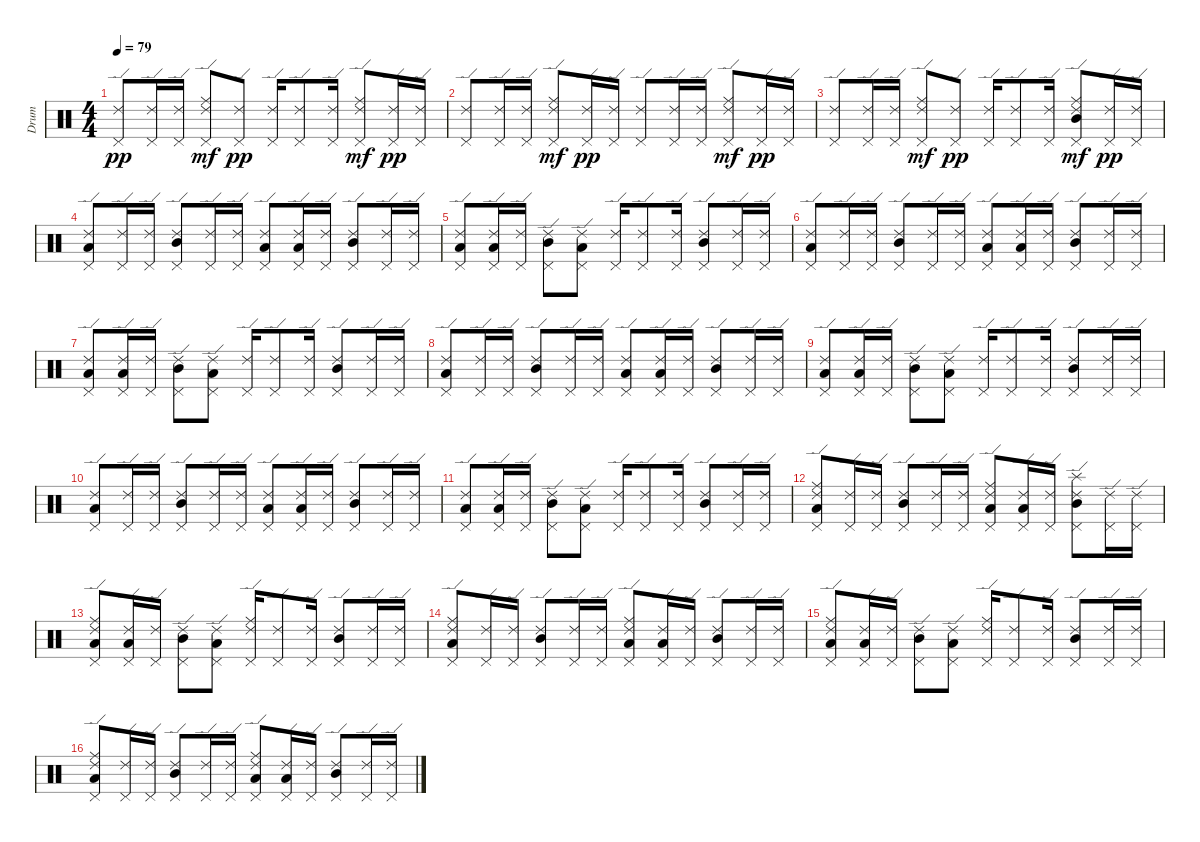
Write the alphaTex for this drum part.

\track ("Drum" "Drum") {instrument percussion}
\staff {score}
\articulation defaults
\ts (4 4)
\tempo 79
\clef neutral
\ks c
("Ride (edge) 2" "Pedal Hi-Hat (hit)").8{dy pp} ("Ride (edge) 2" "Pedal Hi-Hat (hit)").16 ("Ride (edge) 2" "Pedal Hi-Hat (hit)").16 ("Ride (edge) 2" "Pedal Hi-Hat (hit)" "Ride (middle)").8{dy mf} ("Ride (edge) 2" "Pedal Hi-Hat (hit)").8{dy pp} ("Ride (edge) 2" "Pedal Hi-Hat (hit)").16 ("Ride (edge) 2" "Pedal Hi-Hat (hit)").8 ("Ride (edge) 2" "Pedal Hi-Hat (hit)").16 ("Ride (edge) 2" "Pedal Hi-Hat (hit)" "Ride (middle)").8{dy mf} ("Ride (edge) 2" "Pedal Hi-Hat (hit)").16{dy pp} ("Ride (edge) 2" "Pedal Hi-Hat (hit)").16 |
("Ride (edge) 2" "Pedal Hi-Hat (hit)").8 ("Ride (edge) 2" "Pedal Hi-Hat (hit)").16 ("Ride (edge) 2" "Pedal Hi-Hat (hit)").16 ("Ride (edge) 2" "Pedal Hi-Hat (hit)" "Ride (middle)").8{dy mf} ("Ride (edge) 2" "Pedal Hi-Hat (hit)").16{dy pp} ("Ride (edge) 2" "Pedal Hi-Hat (hit)").16 ("Ride (edge) 2" "Pedal Hi-Hat (hit)").8 ("Ride (edge) 2" "Pedal Hi-Hat (hit)").16 ("Ride (edge) 2" "Pedal Hi-Hat (hit)").16 ("Ride (edge) 2" "Pedal Hi-Hat (hit)" "Ride (middle)").8{dy mf} ("Ride (edge) 2" "Pedal Hi-Hat (hit)").16{dy pp} ("Ride (edge) 2" "Pedal Hi-Hat (hit)").16 |
("Ride (edge) 2" "Pedal Hi-Hat (hit)").8 ("Ride (edge) 2" "Pedal Hi-Hat (hit)").16 ("Ride (edge) 2" "Pedal Hi-Hat (hit)").16 ("Ride (edge) 2" "Pedal Hi-Hat (hit)" "Ride (middle)").8{dy mf} ("Ride (edge) 2" "Pedal Hi-Hat (hit)").8{dy pp} ("Ride (edge) 2" "Pedal Hi-Hat (hit)").16 ("Ride (edge) 2" "Pedal Hi-Hat (hit)").8 ("Ride (edge) 2" "Pedal Hi-Hat (hit)").16 ("Ride (edge) 2" "Pedal Hi-Hat (hit)" "Ride (middle)" "Mid Tom (hit)").8{dy mf} ("Ride (edge) 2" "Pedal Hi-Hat (hit)").16{dy pp} ("Ride (edge) 2" "Pedal Hi-Hat (hit)").16 |
("Ride (edge) 2" "Pedal Hi-Hat (hit)" "Low Tom (hit)").8 ("Ride (edge) 2" "Pedal Hi-Hat (hit)").16 ("Ride (edge) 2" "Pedal Hi-Hat (hit)").16 ("Ride (edge) 2" "Pedal Hi-Hat (hit)" "Mid Tom (hit)").8 ("Ride (edge) 2" "Pedal Hi-Hat (hit)").16 ("Ride (edge) 2" "Pedal Hi-Hat (hit)").16 ("Ride (edge) 2" "Pedal Hi-Hat (hit)" "Low Tom (hit)").8 ("Ride (edge) 2" "Pedal Hi-Hat (hit)" "Low Tom (hit)").16 ("Ride (edge) 2" "Pedal Hi-Hat (hit)").16 ("Ride (edge) 2" "Pedal Hi-Hat (hit)" "Mid Tom (hit)").8 ("Ride (edge) 2" "Pedal Hi-Hat (hit)").16 ("Ride (edge) 2" "Pedal Hi-Hat (hit)").16 |
("Ride (edge) 2" "Pedal Hi-Hat (hit)" "Low Tom (hit)").8 ("Ride (edge) 2" "Pedal Hi-Hat (hit)" "Low Tom (hit)").16 ("Ride (edge) 2" "Pedal Hi-Hat (hit)").16 ("Ride (edge) 2" "Pedal Hi-Hat (hit)" "Mid Tom (hit)").8 ("Ride (edge) 2" "Pedal Hi-Hat (hit)" "Low Tom (hit)").8 ("Ride (edge) 2" "Pedal Hi-Hat (hit)").16 ("Ride (edge) 2" "Pedal Hi-Hat (hit)").8 ("Ride (edge) 2" "Pedal Hi-Hat (hit)").16 ("Ride (edge) 2" "Pedal Hi-Hat (hit)" "Mid Tom (hit)").8 ("Ride (edge) 2" "Pedal Hi-Hat (hit)").16 ("Ride (edge) 2" "Pedal Hi-Hat (hit)").16 |
("Ride (edge) 2" "Pedal Hi-Hat (hit)" "Low Tom (hit)").8 ("Ride (edge) 2" "Pedal Hi-Hat (hit)").16 ("Ride (edge) 2" "Pedal Hi-Hat (hit)").16 ("Ride (edge) 2" "Pedal Hi-Hat (hit)" "Mid Tom (hit)").8 ("Ride (edge) 2" "Pedal Hi-Hat (hit)").16 ("Ride (edge) 2" "Pedal Hi-Hat (hit)").16 ("Ride (edge) 2" "Pedal Hi-Hat (hit)" "Low Tom (hit)").8 ("Ride (edge) 2" "Pedal Hi-Hat (hit)" "Low Tom (hit)").16 ("Ride (edge) 2" "Pedal Hi-Hat (hit)").16 ("Ride (edge) 2" "Pedal Hi-Hat (hit)" "Mid Tom (hit)").8 ("Ride (edge) 2" "Pedal Hi-Hat (hit)").16 ("Ride (edge) 2" "Pedal Hi-Hat (hit)").16 |
("Ride (edge) 2" "Pedal Hi-Hat (hit)" "Low Tom (hit)").8 ("Ride (edge) 2" "Pedal Hi-Hat (hit)" "Low Tom (hit)").16 ("Ride (edge) 2" "Pedal Hi-Hat (hit)").16 ("Ride (edge) 2" "Pedal Hi-Hat (hit)" "Mid Tom (hit)").8 ("Ride (edge) 2" "Pedal Hi-Hat (hit)" "Low Tom (hit)").8 ("Ride (edge) 2" "Pedal Hi-Hat (hit)").16 ("Ride (edge) 2" "Pedal Hi-Hat (hit)").8 ("Ride (edge) 2" "Pedal Hi-Hat (hit)").16 ("Ride (edge) 2" "Pedal Hi-Hat (hit)" "Mid Tom (hit)").8 ("Ride (edge) 2" "Pedal Hi-Hat (hit)").16 ("Ride (edge) 2" "Pedal Hi-Hat (hit)").16 |
("Ride (edge) 2" "Pedal Hi-Hat (hit)" "Low Tom (hit)").8 ("Ride (edge) 2" "Pedal Hi-Hat (hit)").16 ("Ride (edge) 2" "Pedal Hi-Hat (hit)").16 ("Ride (edge) 2" "Pedal Hi-Hat (hit)" "Mid Tom (hit)").8 ("Ride (edge) 2" "Pedal Hi-Hat (hit)").16 ("Ride (edge) 2" "Pedal Hi-Hat (hit)").16 ("Ride (edge) 2" "Pedal Hi-Hat (hit)" "Low Tom (hit)").8 ("Ride (edge) 2" "Pedal Hi-Hat (hit)" "Low Tom (hit)").16 ("Ride (edge) 2" "Pedal Hi-Hat (hit)").16 ("Ride (edge) 2" "Pedal Hi-Hat (hit)" "Mid Tom (hit)").8 ("Ride (edge) 2" "Pedal Hi-Hat (hit)").16 ("Ride (edge) 2" "Pedal Hi-Hat (hit)").16 |
("Ride (edge) 2" "Pedal Hi-Hat (hit)" "Low Tom (hit)").8 ("Ride (edge) 2" "Pedal Hi-Hat (hit)" "Low Tom (hit)").16 ("Ride (edge) 2" "Pedal Hi-Hat (hit)").16 ("Ride (edge) 2" "Pedal Hi-Hat (hit)" "Mid Tom (hit)").8 ("Ride (edge) 2" "Pedal Hi-Hat (hit)" "Low Tom (hit)").8 ("Ride (edge) 2" "Pedal Hi-Hat (hit)").16 ("Ride (edge) 2" "Pedal Hi-Hat (hit)").8 ("Ride (edge) 2" "Pedal Hi-Hat (hit)").16 ("Ride (edge) 2" "Pedal Hi-Hat (hit)" "Mid Tom (hit)").8 ("Ride (edge) 2" "Pedal Hi-Hat (hit)").16 ("Ride (edge) 2" "Pedal Hi-Hat (hit)").16 |
("Ride (edge) 2" "Pedal Hi-Hat (hit)" "Low Tom (hit)").8 ("Ride (edge) 2" "Pedal Hi-Hat (hit)").16 ("Ride (edge) 2" "Pedal Hi-Hat (hit)").16 ("Ride (edge) 2" "Pedal Hi-Hat (hit)" "Mid Tom (hit)").8 ("Ride (edge) 2" "Pedal Hi-Hat (hit)").16 ("Ride (edge) 2" "Pedal Hi-Hat (hit)").16 ("Ride (edge) 2" "Pedal Hi-Hat (hit)" "Low Tom (hit)").8 ("Ride (edge) 2" "Pedal Hi-Hat (hit)" "Low Tom (hit)").16 ("Ride (edge) 2" "Pedal Hi-Hat (hit)").16 ("Ride (edge) 2" "Pedal Hi-Hat (hit)" "Mid Tom (hit)").8 ("Ride (edge) 2" "Pedal Hi-Hat (hit)").16 ("Ride (edge) 2" "Pedal Hi-Hat (hit)").16 |
("Ride (edge) 2" "Pedal Hi-Hat (hit)" "Low Tom (hit)").8 ("Ride (edge) 2" "Pedal Hi-Hat (hit)" "Low Tom (hit)").16 ("Ride (edge) 2" "Pedal Hi-Hat (hit)").16 ("Ride (edge) 2" "Pedal Hi-Hat (hit)" "Mid Tom (hit)").8 ("Ride (edge) 2" "Pedal Hi-Hat (hit)" "Low Tom (hit)").8 ("Ride (edge) 2" "Pedal Hi-Hat (hit)").16 ("Ride (edge) 2" "Pedal Hi-Hat (hit)").8 ("Ride (edge) 2" "Pedal Hi-Hat (hit)").16 ("Ride (edge) 2" "Pedal Hi-Hat (hit)" "Mid Tom (hit)").8 ("Ride (edge) 2" "Pedal Hi-Hat (hit)").16 ("Ride (edge) 2" "Pedal Hi-Hat (hit)").16 |
("Ride (edge) 2" "Pedal Hi-Hat (hit)" "Ride (middle)" "Low Tom (hit)").8 ("Ride (edge) 2" "Pedal Hi-Hat (hit)").16 ("Ride (edge) 2" "Pedal Hi-Hat (hit)").16 ("Ride (edge) 2" "Pedal Hi-Hat (hit)" "Mid Tom (hit)").8 ("Ride (edge) 2" "Pedal Hi-Hat (hit)").16 ("Ride (edge) 2" "Pedal Hi-Hat (hit)").16 ("Ride (edge) 2" "Pedal Hi-Hat (hit)" "Ride (middle)" "Low Tom (hit)").8 ("Ride (edge) 2" "Pedal Hi-Hat (hit)" "Low Tom (hit)").16 ("Ride (edge) 2" "Pedal Hi-Hat (hit)").16 ("Ride (edge) 2" "Pedal Hi-Hat (hit)" "Splash (hit)" "Mid Tom (hit)").8 ("Ride (edge) 2" "Pedal Hi-Hat (hit)").16 ("Ride (edge) 2" "Pedal Hi-Hat (hit)").16 |
("Ride (edge) 2" "Pedal Hi-Hat (hit)" "Ride (middle)" "Low Tom (hit)").8 ("Ride (edge) 2" "Pedal Hi-Hat (hit)" "Low Tom (hit)").16 ("Ride (edge) 2" "Pedal Hi-Hat (hit)").16 ("Ride (edge) 2" "Pedal Hi-Hat (hit)" "Mid Tom (hit)").8 ("Ride (edge) 2" "Pedal Hi-Hat (hit)" "Low Tom (hit)").8 ("Ride (edge) 2" "Pedal Hi-Hat (hit)" "Ride (middle)").16 ("Ride (edge) 2" "Pedal Hi-Hat (hit)").8 ("Ride (edge) 2" "Pedal Hi-Hat (hit)").16 ("Ride (edge) 2" "Pedal Hi-Hat (hit)" "Mid Tom (hit)").8 ("Ride (edge) 2" "Pedal Hi-Hat (hit)").16 ("Ride (edge) 2" "Pedal Hi-Hat (hit)").16 |
("Ride (edge) 2" "Pedal Hi-Hat (hit)" "Ride (middle)" "Low Tom (hit)").8 ("Ride (edge) 2" "Pedal Hi-Hat (hit)").16 ("Ride (edge) 2" "Pedal Hi-Hat (hit)").16 ("Ride (edge) 2" "Pedal Hi-Hat (hit)" "Mid Tom (hit)").8 ("Ride (edge) 2" "Pedal Hi-Hat (hit)").16 ("Ride (edge) 2" "Pedal Hi-Hat (hit)").16 ("Ride (edge) 2" "Pedal Hi-Hat (hit)" "Ride (middle)" "Low Tom (hit)").8 ("Ride (edge) 2" "Pedal Hi-Hat (hit)" "Low Tom (hit)").16 ("Ride (edge) 2" "Pedal Hi-Hat (hit)").16 ("Ride (edge) 2" "Pedal Hi-Hat (hit)" "Mid Tom (hit)").8 ("Ride (edge) 2" "Pedal Hi-Hat (hit)").16 ("Ride (edge) 2" "Pedal Hi-Hat (hit)").16 |
("Ride (edge) 2" "Pedal Hi-Hat (hit)" "Ride (middle)" "Low Tom (hit)").8 ("Ride (edge) 2" "Pedal Hi-Hat (hit)" "Low Tom (hit)").16 ("Ride (edge) 2" "Pedal Hi-Hat (hit)").16 ("Ride (edge) 2" "Pedal Hi-Hat (hit)" "Mid Tom (hit)").8 ("Ride (edge) 2" "Pedal Hi-Hat (hit)" "Low Tom (hit)").8 ("Ride (edge) 2" "Pedal Hi-Hat (hit)" "Ride (middle)").16 ("Ride (edge) 2" "Pedal Hi-Hat (hit)").8 ("Ride (edge) 2" "Pedal Hi-Hat (hit)").16 ("Ride (edge) 2" "Pedal Hi-Hat (hit)" "Mid Tom (hit)").8 ("Ride (edge) 2" "Pedal Hi-Hat (hit)").16 ("Ride (edge) 2" "Pedal Hi-Hat (hit)").16 |
("Ride (edge) 2" "Pedal Hi-Hat (hit)" "Ride (middle)" "Low Tom (hit)").8 ("Ride (edge) 2" "Pedal Hi-Hat (hit)").16 ("Ride (edge) 2" "Pedal Hi-Hat (hit)").16 ("Ride (edge) 2" "Pedal Hi-Hat (hit)" "Mid Tom (hit)").8 ("Ride (edge) 2" "Pedal Hi-Hat (hit)").16 ("Ride (edge) 2" "Pedal Hi-Hat (hit)").16 ("Ride (edge) 2" "Pedal Hi-Hat (hit)" "Ride (middle)" "Low Tom (hit)").8 ("Ride (edge) 2" "Pedal Hi-Hat (hit)" "Low Tom (hit)").16 ("Ride (edge) 2" "Pedal Hi-Hat (hit)").16 ("Ride (edge) 2" "Pedal Hi-Hat (hit)" "Mid Tom (hit)").8 ("Ride (edge) 2" "Pedal Hi-Hat (hit)").16 ("Ride (edge) 2" "Pedal Hi-Hat (hit)").16
